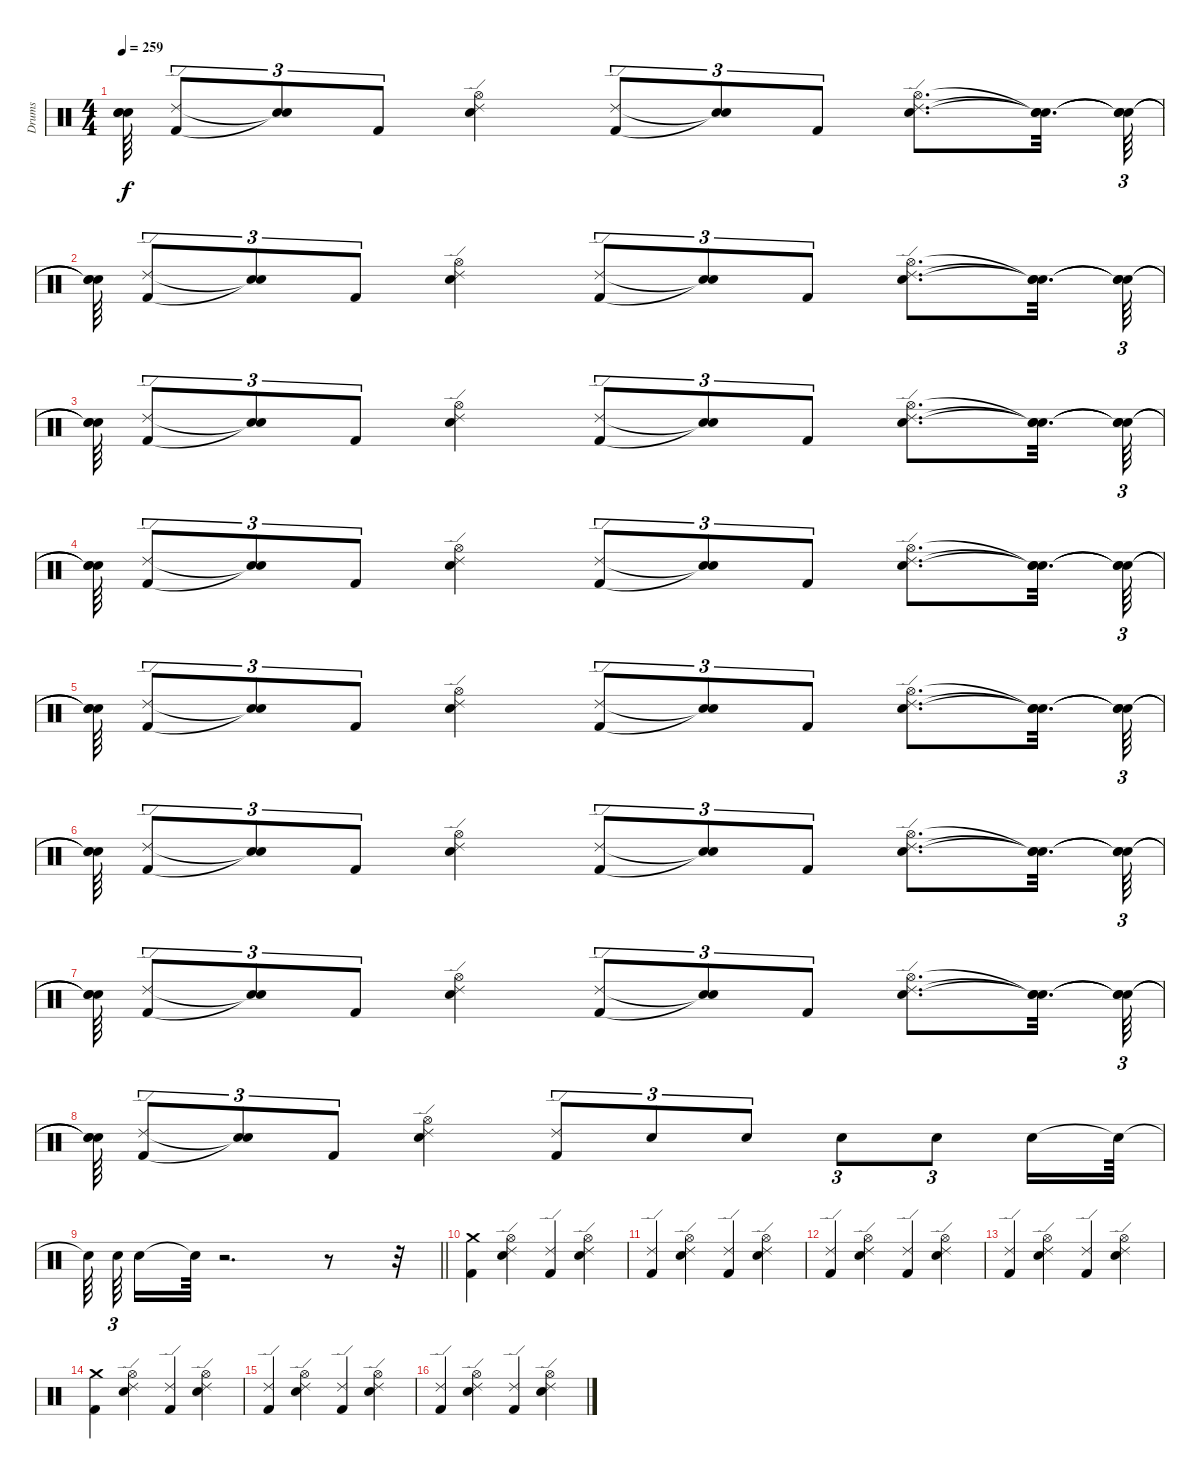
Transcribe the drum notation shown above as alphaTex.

\track ("Drums" "Drums") {instrument percussion}
\staff {score}
\articulation defaults
\ts (4 4)
\tempo 259
\clef neutral
\ks c
("Snare (hit)"{t} "Snare (hit)"{t} "Snare (hit)"{t}).64{dy f} ("Kick (hit) 2" "Ride (edge) 2").8{tu (3 2)} ("Snare (hit)"{t} "Snare (hit)"{t}).8{tu (3 2)} "Kick (hit) 2".8{tu (3 2)} ("Electric Snare (hit)" "Ride (edge) 2" "Hi-Hat (open)").4 ("Kick (hit) 2" "Ride (edge) 2").8{tu (3 2)} ("Snare (hit)"{t} "Snare (hit)"{t}).8{tu (3 2)} "Kick (hit) 2".8{tu (3 2)} ("Electric Snare (hit)" "Ride (edge) 2" "Hi-Hat (open)").8{d} ("Snare (hit)"{t} "Snare (hit)"{t} "Snare (hit)"{t}).32{d} ("Snare (hit)"{t} "Snare (hit)"{t} "Snare (hit)"{t}).64{tu (3 2)} |
("Snare (hit)"{t} "Snare (hit)"{t} "Snare (hit)"{t}).64 ("Kick (hit) 2" "Ride (edge) 2").8{tu (3 2)} ("Snare (hit)"{t} "Snare (hit)"{t}).8{tu (3 2)} "Kick (hit) 2".8{tu (3 2)} ("Electric Snare (hit)" "Ride (edge) 2" "Hi-Hat (open)").4 ("Kick (hit) 2" "Ride (edge) 2").8{tu (3 2)} ("Snare (hit)"{t} "Snare (hit)"{t}).8{tu (3 2)} "Kick (hit) 2".8{tu (3 2)} ("Electric Snare (hit)" "Ride (edge) 2" "Hi-Hat (open)").8{d} ("Snare (hit)"{t} "Snare (hit)"{t} "Snare (hit)"{t}).32{d} ("Snare (hit)"{t} "Snare (hit)"{t} "Snare (hit)"{t}).64{tu (3 2)} |
("Snare (hit)"{t} "Snare (hit)"{t} "Snare (hit)"{t}).64 ("Kick (hit) 2" "Ride (edge) 2").8{tu (3 2)} ("Snare (hit)"{t} "Snare (hit)"{t}).8{tu (3 2)} "Kick (hit) 2".8{tu (3 2)} ("Electric Snare (hit)" "Ride (edge) 2" "Hi-Hat (open)").4 ("Kick (hit) 2" "Ride (edge) 2").8{tu (3 2)} ("Snare (hit)"{t} "Snare (hit)"{t}).8{tu (3 2)} "Kick (hit) 2".8{tu (3 2)} ("Electric Snare (hit)" "Ride (edge) 2" "Hi-Hat (open)").8{d} ("Snare (hit)"{t} "Snare (hit)"{t} "Snare (hit)"{t}).32{d} ("Snare (hit)"{t} "Snare (hit)"{t} "Snare (hit)"{t}).64{tu (3 2)} |
("Snare (hit)"{t} "Snare (hit)"{t} "Snare (hit)"{t}).64 ("Kick (hit) 2" "Ride (edge) 2").8{tu (3 2)} ("Snare (hit)"{t} "Snare (hit)"{t}).8{tu (3 2)} "Kick (hit) 2".8{tu (3 2)} ("Electric Snare (hit)" "Ride (edge) 2" "Hi-Hat (open)").4 ("Kick (hit) 2" "Ride (edge) 2").8{tu (3 2)} ("Snare (hit)"{t} "Snare (hit)"{t}).8{tu (3 2)} "Kick (hit) 2".8{tu (3 2)} ("Electric Snare (hit)" "Ride (edge) 2" "Hi-Hat (open)").8{d} ("Snare (hit)"{t} "Snare (hit)"{t} "Snare (hit)"{t}).32{d} ("Snare (hit)"{t} "Snare (hit)"{t} "Snare (hit)"{t}).64{tu (3 2)} |
("Snare (hit)"{t} "Snare (hit)"{t} "Snare (hit)"{t}).64 ("Kick (hit) 2" "Ride (edge) 2").8{tu (3 2)} ("Snare (hit)"{t} "Snare (hit)"{t}).8{tu (3 2)} "Kick (hit) 2".8{tu (3 2)} ("Electric Snare (hit)" "Ride (edge) 2" "Hi-Hat (open)").4 ("Kick (hit) 2" "Ride (edge) 2").8{tu (3 2)} ("Snare (hit)"{t} "Snare (hit)"{t}).8{tu (3 2)} "Kick (hit) 2".8{tu (3 2)} ("Electric Snare (hit)" "Ride (edge) 2" "Hi-Hat (open)").8{d} ("Snare (hit)"{t} "Snare (hit)"{t} "Snare (hit)"{t}).32{d} ("Snare (hit)"{t} "Snare (hit)"{t} "Snare (hit)"{t}).64{tu (3 2)} |
("Snare (hit)"{t} "Snare (hit)"{t} "Snare (hit)"{t}).64 ("Kick (hit) 2" "Ride (edge) 2").8{tu (3 2)} ("Snare (hit)"{t} "Snare (hit)"{t}).8{tu (3 2)} "Kick (hit) 2".8{tu (3 2)} ("Electric Snare (hit)" "Ride (edge) 2" "Hi-Hat (open)").4 ("Kick (hit) 2" "Ride (edge) 2").8{tu (3 2)} ("Snare (hit)"{t} "Snare (hit)"{t}).8{tu (3 2)} "Kick (hit) 2".8{tu (3 2)} ("Electric Snare (hit)" "Ride (edge) 2" "Hi-Hat (open)").8{d} ("Snare (hit)"{t} "Snare (hit)"{t} "Snare (hit)"{t}).32{d} ("Snare (hit)"{t} "Snare (hit)"{t} "Snare (hit)"{t}).64{tu (3 2)} |
("Snare (hit)"{t} "Snare (hit)"{t} "Snare (hit)"{t}).64 ("Kick (hit) 2" "Ride (edge) 2").8{tu (3 2)} ("Snare (hit)"{t} "Snare (hit)"{t}).8{tu (3 2)} "Kick (hit) 2".8{tu (3 2)} ("Electric Snare (hit)" "Ride (edge) 2" "Hi-Hat (open)").4 ("Kick (hit) 2" "Ride (edge) 2").8{tu (3 2)} ("Snare (hit)"{t} "Snare (hit)"{t}).8{tu (3 2)} "Kick (hit) 2".8{tu (3 2)} ("Electric Snare (hit)" "Ride (edge) 2" "Hi-Hat (open)").8{d} ("Snare (hit)"{t} "Snare (hit)"{t} "Snare (hit)"{t}).32{d} ("Snare (hit)"{t} "Snare (hit)"{t} "Snare (hit)"{t}).64{tu (3 2)} |
("Snare (hit)"{t} "Snare (hit)"{t} "Snare (hit)"{t}).64 ("Kick (hit) 2" "Ride (edge) 2").8{tu (3 2)} ("Snare (hit)"{t} "Snare (hit)"{t}).8{tu (3 2)} "Kick (hit) 2".8{tu (3 2)} ("Electric Snare (hit)" "Ride (edge) 2" "Hi-Hat (open)").4 ("Kick (hit) 2" "Ride (edge) 2").8{tu (3 2)} "Electric Snare (hit)".8{tu (3 2)} "Electric Snare (hit)".8{tu (3 2)} "Electric Snare (hit)".8{tu (3 2)} "Electric Snare (hit)".8{tu (3 2)} "Electric Snare (hit)".16 "Snare (hit)"{t}.64 |
\barLineRight lightlight "Snare (hit)"{t}.64{beam splitsecondary} "Electric Snare (hit)".64{tu (3 2) beam splitsecondary} "Electric Snare (hit)".16 "Snare (hit)"{t}.64
r.2{d} r.8 r.32 |
("Kick (hit) 2" "Crash medium (hit)").4 ("Electric Snare (hit)" "Ride (edge) 2" "Hi-Hat (open)").4 ("Kick (hit) 2" "Ride (edge) 2").4 ("Electric Snare (hit)" "Ride (edge) 2" "Hi-Hat (open)").4 |
("Kick (hit) 2" "Ride (edge) 2").4 ("Electric Snare (hit)" "Ride (edge) 2" "Hi-Hat (open)").4 ("Kick (hit) 2" "Ride (edge) 2").4 ("Electric Snare (hit)" "Ride (edge) 2" "Hi-Hat (open)").4 |
("Kick (hit) 2" "Ride (edge) 2").4 ("Electric Snare (hit)" "Ride (edge) 2" "Hi-Hat (open)").4 ("Kick (hit) 2" "Ride (edge) 2").4 ("Electric Snare (hit)" "Ride (edge) 2" "Hi-Hat (open)").4 |
("Kick (hit) 2" "Ride (edge) 2").4 ("Electric Snare (hit)" "Ride (edge) 2" "Hi-Hat (open)").4 ("Kick (hit) 2" "Ride (edge) 2").4 ("Electric Snare (hit)" "Ride (edge) 2" "Hi-Hat (open)").4 |
("Kick (hit) 2" "Crash medium (hit)").4 ("Electric Snare (hit)" "Ride (edge) 2" "Hi-Hat (open)").4 ("Kick (hit) 2" "Ride (edge) 2").4 ("Electric Snare (hit)" "Ride (edge) 2" "Hi-Hat (open)").4 |
("Kick (hit) 2" "Ride (edge) 2").4 ("Electric Snare (hit)" "Ride (edge) 2" "Hi-Hat (open)").4 ("Kick (hit) 2" "Ride (edge) 2").4 ("Electric Snare (hit)" "Ride (edge) 2" "Hi-Hat (open)").4 |
("Kick (hit) 2" "Ride (edge) 2").4 ("Electric Snare (hit)" "Ride (edge) 2" "Hi-Hat (open)").4 ("Kick (hit) 2" "Ride (edge) 2").4 ("Electric Snare (hit)" "Ride (edge) 2" "Hi-Hat (open)").4
